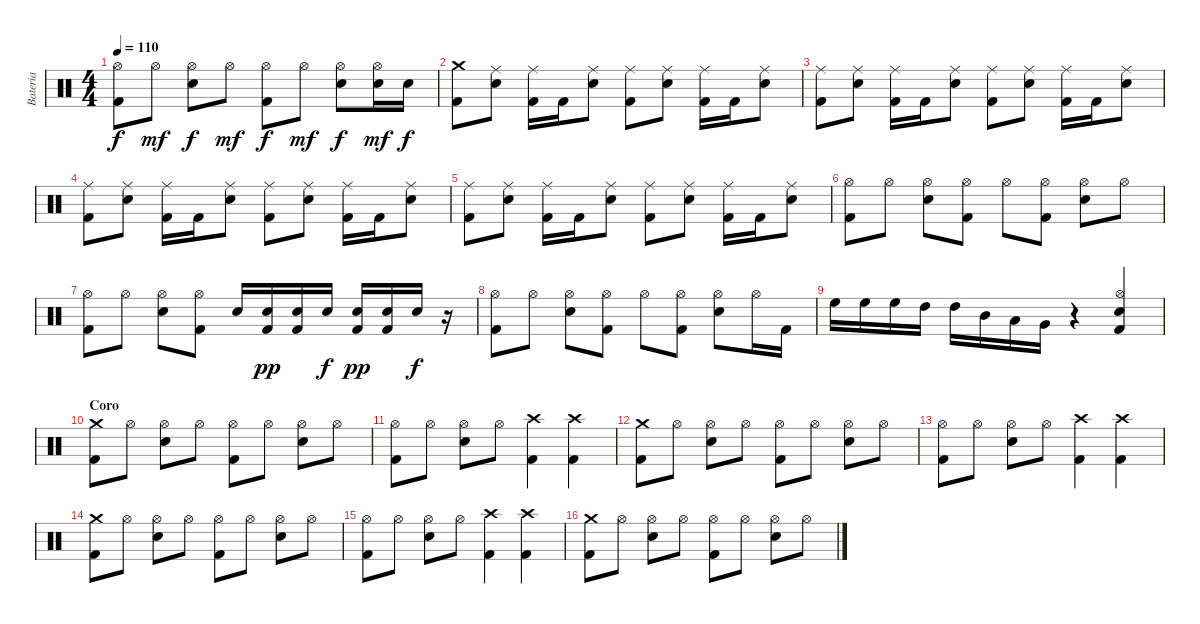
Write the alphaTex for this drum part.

\track ("Bateria" "Bateria") {instrument percussion}
\staff {score}
\articulation defaults
\ts (4 4)
\tempo 110
\clef neutral
\ks c
("Kick (hit) 2" "Hi-Hat (open)").8{dy f} "Hi-Hat (open)".8{dy mf} ("Snare (hit) 2" "Hi-Hat (open)").8{dy f} "Hi-Hat (open)".8{dy mf} ("Kick (hit) 2" "Hi-Hat (open)").8{dy f} "Hi-Hat (open)".8{dy mf} ("Snare (hit) 2" "Hi-Hat (open)").8{dy f} ("Snare (hit) 2" "Hi-Hat (open)").16{dy mf} "Snare (hit) 2".16{dy f} |
("Crash medium (hit)" "Kick (hit) 2").8 ("Snare (hit) 2" "Ride (middle)").8 ("Kick (hit) 2" "Ride (middle)").16 "Kick (hit) 2".16 ("Snare (hit) 2" "Ride (middle)").8 ("Kick (hit) 2" "Ride (middle)").8 ("Snare (hit) 2" "Ride (middle)").8 ("Kick (hit) 2" "Ride (middle)").16 "Kick (hit) 2".16 ("Snare (hit) 2" "Ride (middle)").8 |
("Ride (middle)" "Kick (hit) 2").8 ("Snare (hit) 2" "Ride (middle)").8 ("Kick (hit) 2" "Ride (middle)").16 "Kick (hit) 2".16 ("Snare (hit) 2" "Ride (middle)").8 ("Kick (hit) 2" "Ride (middle)").8 ("Snare (hit) 2" "Ride (middle)").8 ("Kick (hit) 2" "Ride (middle)").16 "Kick (hit) 2".16 ("Snare (hit) 2" "Ride (middle)").8 |
("Ride (middle)" "Kick (hit) 2").8 ("Snare (hit) 2" "Ride (middle)").8 ("Kick (hit) 2" "Ride (middle)").16 "Kick (hit) 2".16 ("Snare (hit) 2" "Ride (middle)").8 ("Kick (hit) 2" "Ride (middle)").8 ("Snare (hit) 2" "Ride (middle)").8 ("Kick (hit) 2" "Ride (middle)").16 "Kick (hit) 2".16 ("Snare (hit) 2" "Ride (middle)").8 |
("Ride (middle)" "Kick (hit) 2").8 ("Snare (hit) 2" "Ride (middle)").8 ("Kick (hit) 2" "Ride (middle)").16 "Kick (hit) 2".16 ("Snare (hit) 2" "Ride (middle)").8 ("Kick (hit) 2" "Ride (middle)").8 ("Snare (hit) 2" "Ride (middle)").8 ("Kick (hit) 2" "Ride (middle)").16 "Kick (hit) 2".16 ("Snare (hit) 2" "Ride (middle)").8 |
("Hi-Hat (open)" "Kick (hit) 2").8 "Hi-Hat (open)".8 ("Hi-Hat (open)" "Snare (hit) 2").8 ("Hi-Hat (open)" "Kick (hit) 2").8 "Hi-Hat (open)".8 ("Hi-Hat (open)" "Kick (hit) 2").8 ("Hi-Hat (open)" "Snare (hit) 2").8 "Hi-Hat (open)".8 |
("Hi-Hat (open)" "Kick (hit) 2").8 "Hi-Hat (open)".8 ("Hi-Hat (open)" "Snare (hit) 2").8 ("Hi-Hat (open)" "Kick (hit) 2").8 "Snare (hit) 2".16 ("Kick (hit) 2" "Snare (hit) 2").16{dy pp} ("Kick (hit) 2" "Snare (hit) 2").16 "Snare (hit) 2".16{dy f} ("Kick (hit) 2" "Snare (hit) 2").16{dy pp} ("Kick (hit) 2" "Snare (hit) 2").16 "Snare (hit) 2".16{dy f} r.16 |
("Hi-Hat (open)" "Kick (hit) 2").8 "Hi-Hat (open)".8 ("Hi-Hat (open)" "Snare (hit) 2").8 ("Hi-Hat (open)" "Kick (hit) 2").8 "Hi-Hat (open)".8 ("Hi-Hat (open)" "Kick (hit) 2").8 ("Hi-Hat (open)" "Snare (hit) 2").8 "Hi-Hat (open)".16 "Kick (hit) 2".16 |
"High Floor Tom (hit)".16 "High Floor Tom (hit)".16 "High Floor Tom (hit)".16 "High Tom (hit)".16 "High Tom (hit)".16 "Mid Tom (hit)".16 "Low Tom (hit)".16 "Very Low Tom (hit)".16 r.4 ("Kick (hit) 2" "Hi-Hat (open)" "Snare (hit) 2").4 |
\section ("" "Coro")
("Crash medium (hit)" "Kick (hit) 2").8 "Hi-Hat (open)".8 ("Snare (hit) 2" "Hi-Hat (open)").8 "Hi-Hat (open)".8 ("Kick (hit) 2" "Hi-Hat (open)").8 "Hi-Hat (open)".8 ("Snare (hit) 2" "Hi-Hat (open)").8 "Hi-Hat (open)".8 |
("Hi-Hat (open)" "Kick (hit) 2").8 "Hi-Hat (open)".8 ("Snare (hit) 2" "Hi-Hat (open)").8 "Hi-Hat (open)".8 ("Kick (hit) 2" "Crash high (hit)").4 ("Kick (hit) 2" "Crash high (hit)").4 |
("Crash medium (hit)" "Kick (hit) 2").8 "Hi-Hat (open)".8 ("Snare (hit) 2" "Hi-Hat (open)").8 "Hi-Hat (open)".8 ("Kick (hit) 2" "Hi-Hat (open)").8 "Hi-Hat (open)".8 ("Snare (hit) 2" "Hi-Hat (open)").8 "Hi-Hat (open)".8 |
("Hi-Hat (open)" "Kick (hit) 2").8 "Hi-Hat (open)".8 ("Snare (hit) 2" "Hi-Hat (open)").8 "Hi-Hat (open)".8 ("Kick (hit) 2" "Crash high (hit)").4 ("Kick (hit) 2" "Crash high (hit)").4 |
("Crash medium (hit)" "Kick (hit) 2").8 "Hi-Hat (open)".8 ("Snare (hit) 2" "Hi-Hat (open)").8 "Hi-Hat (open)".8 ("Kick (hit) 2" "Hi-Hat (open)").8 "Hi-Hat (open)".8 ("Snare (hit) 2" "Hi-Hat (open)").8 "Hi-Hat (open)".8 |
("Hi-Hat (open)" "Kick (hit) 2").8 "Hi-Hat (open)".8 ("Snare (hit) 2" "Hi-Hat (open)").8 "Hi-Hat (open)".8 ("Kick (hit) 2" "Crash high (hit)").4 ("Kick (hit) 2" "Crash high (hit)").4 |
("Crash medium (hit)" "Kick (hit) 2").8 "Hi-Hat (open)".8 ("Snare (hit) 2" "Hi-Hat (open)").8 "Hi-Hat (open)".8 ("Kick (hit) 2" "Hi-Hat (open)").8 "Hi-Hat (open)".8 ("Snare (hit) 2" "Hi-Hat (open)").8 "Hi-Hat (open)".8
